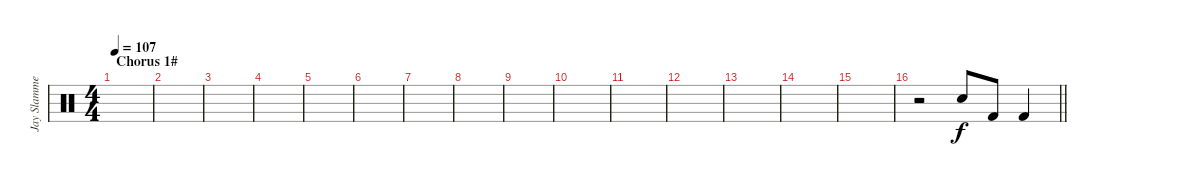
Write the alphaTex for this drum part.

\track ("Jay Slammer" "Jay Slamme") {instrument percussion}
\staff {score}
\articulation defaults
\ts (4 4)
\section ("" "Chorus 1#")
\tempo 107
\clef neutral
\ks c
|
|
|
|
|
|
|
|
|
|
|
|
|
|
|
\barLineRight lightlight
r.2 "Electric Snare (hit)".8 "Kick (hit) 2".8 "Kick (hit) 2".4
